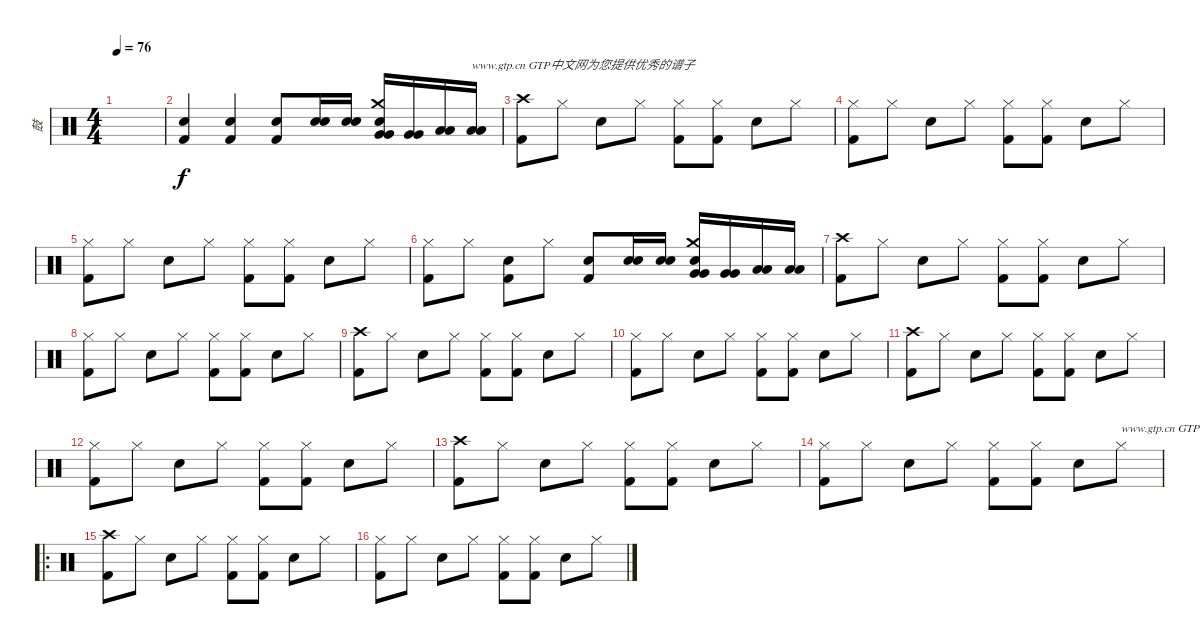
\track ("鼓" "鼓") {instrument percussion}
\staff {score}
\articulation defaults
\ts (4 4)
\tempo 76
\clef neutral
\ks c
|
("Snare (hit) 2" "Kick (hit) 2").4 ("Snare (hit) 2" "Kick (hit) 2").4 ("Kick (hit) 2" "Snare (hit) 2").8 ("Electric Snare (hit)" "Electric Snare (hit)").16 ("Electric Snare (hit)" "Electric Snare (hit)").16 ("Crash medium (hit)" "Very Low Tom (hit)" "Very Low Tom (hit)" "Snare (hit) 2").16 ("Very Low Tom (hit)" "Very Low Tom (hit)").16 ("Low Tom (hit)" "Low Tom (hit)").16 ("Low Tom (hit)" "Low Tom (hit)").16{txt "www.gtp.cn GTP中文网为您提供优秀的谱子"} |
("Crash high (hit)" "Kick (hit) 2").8 "Hi-Hat (closed)".8 "Snare (hit) 2".8 "Hi-Hat (closed)".8 ("Hi-Hat (closed)" "Kick (hit) 2").8 ("Hi-Hat (closed)" "Kick (hit) 2").8 "Snare (hit) 2".8 "Hi-Hat (closed)".8 |
("Hi-Hat (closed)" "Kick (hit) 2").8 "Hi-Hat (closed)".8 "Snare (hit) 2".8 "Hi-Hat (closed)".8 ("Hi-Hat (closed)" "Kick (hit) 2").8 ("Hi-Hat (closed)" "Kick (hit) 2").8 "Snare (hit) 2".8 "Hi-Hat (closed)".8 |
("Hi-Hat (closed)" "Kick (hit) 2").8 "Hi-Hat (closed)".8 "Snare (hit) 2".8 "Hi-Hat (closed)".8 ("Hi-Hat (closed)" "Kick (hit) 2").8 ("Hi-Hat (closed)" "Kick (hit) 2").8 "Snare (hit) 2".8 "Hi-Hat (closed)".8 |
("Hi-Hat (closed)" "Kick (hit) 2").8 "Hi-Hat (closed)".8 ("Snare (hit) 2" "Kick (hit) 2").8 "Hi-Hat (closed)".8 ("Kick (hit) 2" "Snare (hit) 2").8 ("Electric Snare (hit)" "Electric Snare (hit)").16 ("Electric Snare (hit)" "Electric Snare (hit)").16 ("Crash medium (hit)" "Very Low Tom (hit)" "Very Low Tom (hit)" "Snare (hit) 2").16 ("Very Low Tom (hit)" "Very Low Tom (hit)").16 ("Low Tom (hit)" "Low Tom (hit)").16 ("Low Tom (hit)" "Low Tom (hit)").16 |
("Crash high (hit)" "Kick (hit) 2").8 "Hi-Hat (closed)".8 "Snare (hit) 2".8 "Hi-Hat (closed)".8 ("Hi-Hat (closed)" "Kick (hit) 2").8 ("Hi-Hat (closed)" "Kick (hit) 2").8 "Snare (hit) 2".8 "Hi-Hat (closed)".8 |
("Hi-Hat (closed)" "Kick (hit) 2").8 "Hi-Hat (closed)".8 "Snare (hit) 2".8 "Hi-Hat (closed)".8 ("Hi-Hat (closed)" "Kick (hit) 2").8 ("Hi-Hat (closed)" "Kick (hit) 2").8 "Snare (hit) 2".8 "Hi-Hat (closed)".8 |
("Crash high (hit)" "Kick (hit) 2").8 "Hi-Hat (closed)".8 "Snare (hit) 2".8 "Hi-Hat (closed)".8 ("Hi-Hat (closed)" "Kick (hit) 2").8 ("Hi-Hat (closed)" "Kick (hit) 2").8 "Snare (hit) 2".8 "Hi-Hat (closed)".8 |
("Hi-Hat (closed)" "Kick (hit) 2").8 "Hi-Hat (closed)".8 "Snare (hit) 2".8 "Hi-Hat (closed)".8 ("Hi-Hat (closed)" "Kick (hit) 2").8 ("Hi-Hat (closed)" "Kick (hit) 2").8 "Snare (hit) 2".8 "Hi-Hat (closed)".8 |
("Crash high (hit)" "Kick (hit) 2").8 "Hi-Hat (closed)".8 "Snare (hit) 2".8 "Hi-Hat (closed)".8 ("Hi-Hat (closed)" "Kick (hit) 2").8 ("Hi-Hat (closed)" "Kick (hit) 2").8 "Snare (hit) 2".8 "Hi-Hat (closed)".8 |
("Hi-Hat (closed)" "Kick (hit) 2").8 "Hi-Hat (closed)".8 "Snare (hit) 2".8 "Hi-Hat (closed)".8 ("Hi-Hat (closed)" "Kick (hit) 2").8 ("Hi-Hat (closed)" "Kick (hit) 2").8 "Snare (hit) 2".8 "Hi-Hat (closed)".8 |
("Crash high (hit)" "Kick (hit) 2").8 "Hi-Hat (closed)".8 "Snare (hit) 2".8 "Hi-Hat (closed)".8 ("Hi-Hat (closed)" "Kick (hit) 2").8 ("Hi-Hat (closed)" "Kick (hit) 2").8 "Snare (hit) 2".8 "Hi-Hat (closed)".8 |
("Hi-Hat (closed)" "Kick (hit) 2").8 "Hi-Hat (closed)".8 "Snare (hit) 2".8 "Hi-Hat (closed)".8 ("Hi-Hat (closed)" "Kick (hit) 2").8 ("Hi-Hat (closed)" "Kick (hit) 2").8 "Snare (hit) 2".8 "Hi-Hat (closed)".8{txt "www.gtp.cn GTP中文网为您提供优秀的谱子"} |
\ro
("Crash high (hit)" "Kick (hit) 2").8 "Hi-Hat (closed)".8 "Snare (hit) 2".8 "Hi-Hat (closed)".8 ("Hi-Hat (closed)" "Kick (hit) 2").8 ("Hi-Hat (closed)" "Kick (hit) 2").8 "Snare (hit) 2".8 "Hi-Hat (closed)".8 |
("Hi-Hat (closed)" "Kick (hit) 2").8 "Hi-Hat (closed)".8 "Snare (hit) 2".8 "Hi-Hat (closed)".8 ("Hi-Hat (closed)" "Kick (hit) 2").8 ("Hi-Hat (closed)" "Kick (hit) 2").8 "Snare (hit) 2".8 "Hi-Hat (closed)".8
